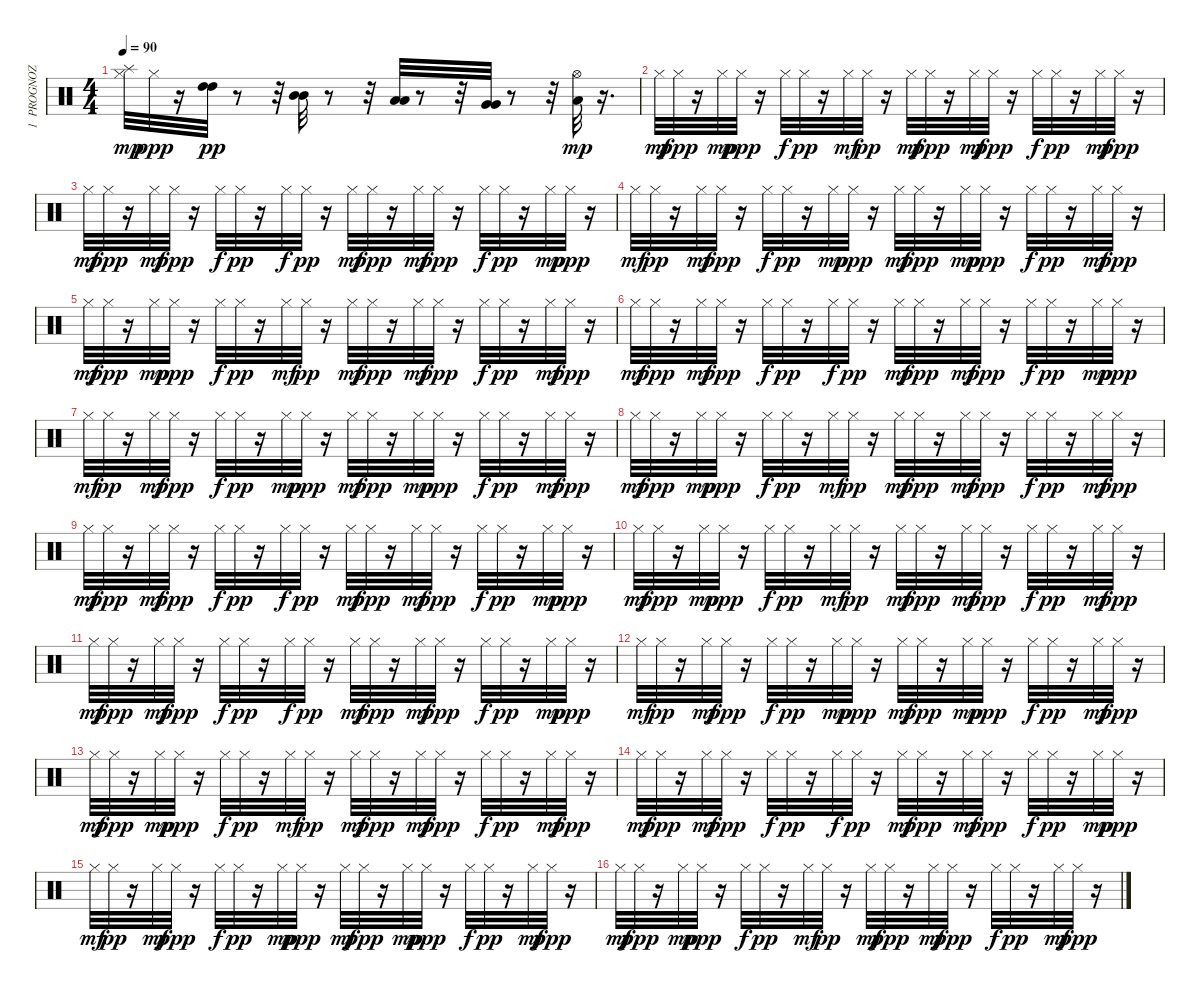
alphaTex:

\track ("1  PROGNOZ POGODY" "1  PROGNOZ") {instrument percussion}
\staff {score}
\articulation defaults
\ts (4 4)
\tempo 90
\clef neutral
\ks c
("Splash (hit)" "Hi-Hat (closed)").32{dy mp} "Hi-Hat (closed)".32{dy ppp} r.16 ("High Tom (hit)" "High Tom (hit)").32{dy pp} r.8 r.32 ("Mid Tom (hit)" "Mid Tom (hit)").32 r.8 r.32 ("Low Tom (hit)" "Low Tom (hit)").32 r.8 r.32 ("Very Low Tom (hit)" "Very Low Tom (hit)").32 r.8 r.32 ("Low Floor Tom (hit)" "Hi-Hat (open)").32{dy mp} r.16{d} |
"Hi-Hat (closed)".32{dy mf} "Hi-Hat (closed)".32{dy ppp} r.16 "Hi-Hat (closed)".32{dy mp} "Hi-Hat (closed)".32{dy ppp} r.16 "Hi-Hat (closed)".32{dy f} "Hi-Hat (closed)".32{dy pp} r.16 "Hi-Hat (closed)".32{dy mf} "Hi-Hat (closed)".32{dy pp} r.16 "Hi-Hat (closed)".32{dy mf} "Hi-Hat (closed)".32{dy ppp} r.16 "Hi-Hat (closed)".32{dy mf} "Hi-Hat (closed)".32{dy ppp} r.16 "Hi-Hat (closed)".32{dy f} "Hi-Hat (closed)".32{dy pp} r.16 "Hi-Hat (closed)".32{dy mf} "Hi-Hat (closed)".32{dy ppp} r.16 |
"Hi-Hat (closed)".32{dy mf} "Hi-Hat (closed)".32{dy ppp} r.16 "Hi-Hat (closed)".32{dy mf} "Hi-Hat (closed)".32{dy ppp} r.16 "Hi-Hat (closed)".32{dy f} "Hi-Hat (closed)".32{dy pp} r.16 "Hi-Hat (closed)".32{dy f} "Hi-Hat (closed)".32{dy pp} r.16 "Hi-Hat (closed)".32{dy mf} "Hi-Hat (closed)".32{dy ppp} r.16 "Hi-Hat (closed)".32{dy mf} "Hi-Hat (closed)".32{dy ppp} r.16 "Hi-Hat (closed)".32{dy f} "Hi-Hat (closed)".32{dy pp} r.16 "Hi-Hat (closed)".32{dy mp} "Hi-Hat (closed)".32{dy ppp} r.16 |
"Hi-Hat (closed)".32{dy mf} "Hi-Hat (closed)".32{dy pp} r.16 "Hi-Hat (closed)".32{dy mf} "Hi-Hat (closed)".32{dy ppp} r.16 "Hi-Hat (closed)".32{dy f} "Hi-Hat (closed)".32{dy pp} r.16 "Hi-Hat (closed)".32{dy mp} "Hi-Hat (closed)".32{dy ppp} r.16 "Hi-Hat (closed)".32{dy mf} "Hi-Hat (closed)".32{dy ppp} r.16 "Hi-Hat (closed)".32{dy mp} "Hi-Hat (closed)".32{dy ppp} r.16 "Hi-Hat (closed)".32{dy f} "Hi-Hat (closed)".32{dy pp} r.16 "Hi-Hat (closed)".32{dy mf} "Hi-Hat (closed)".32{dy ppp} r.16 |
"Hi-Hat (closed)".32{dy mf} "Hi-Hat (closed)".32{dy ppp} r.16 "Hi-Hat (closed)".32{dy mp} "Hi-Hat (closed)".32{dy ppp} r.16 "Hi-Hat (closed)".32{dy f} "Hi-Hat (closed)".32{dy pp} r.16 "Hi-Hat (closed)".32{dy mf} "Hi-Hat (closed)".32{dy pp} r.16 "Hi-Hat (closed)".32{dy mf} "Hi-Hat (closed)".32{dy ppp} r.16 "Hi-Hat (closed)".32{dy mf} "Hi-Hat (closed)".32{dy ppp} r.16 "Hi-Hat (closed)".32{dy f} "Hi-Hat (closed)".32{dy pp} r.16 "Hi-Hat (closed)".32{dy mf} "Hi-Hat (closed)".32{dy ppp} r.16 |
"Hi-Hat (closed)".32{dy mf} "Hi-Hat (closed)".32{dy ppp} r.16 "Hi-Hat (closed)".32{dy mf} "Hi-Hat (closed)".32{dy ppp} r.16 "Hi-Hat (closed)".32{dy f} "Hi-Hat (closed)".32{dy pp} r.16 "Hi-Hat (closed)".32{dy f} "Hi-Hat (closed)".32{dy pp} r.16 "Hi-Hat (closed)".32{dy mf} "Hi-Hat (closed)".32{dy ppp} r.16 "Hi-Hat (closed)".32{dy mf} "Hi-Hat (closed)".32{dy ppp} r.16 "Hi-Hat (closed)".32{dy f} "Hi-Hat (closed)".32{dy pp} r.16 "Hi-Hat (closed)".32{dy mp} "Hi-Hat (closed)".32{dy ppp} r.16 |
"Hi-Hat (closed)".32{dy mf} "Hi-Hat (closed)".32{dy pp} r.16 "Hi-Hat (closed)".32{dy mf} "Hi-Hat (closed)".32{dy ppp} r.16 "Hi-Hat (closed)".32{dy f} "Hi-Hat (closed)".32{dy pp} r.16 "Hi-Hat (closed)".32{dy mp} "Hi-Hat (closed)".32{dy ppp} r.16 "Hi-Hat (closed)".32{dy mf} "Hi-Hat (closed)".32{dy ppp} r.16 "Hi-Hat (closed)".32{dy mp} "Hi-Hat (closed)".32{dy ppp} r.16 "Hi-Hat (closed)".32{dy f} "Hi-Hat (closed)".32{dy pp} r.16 "Hi-Hat (closed)".32{dy mf} "Hi-Hat (closed)".32{dy ppp} r.16 |
"Hi-Hat (closed)".32{dy mf} "Hi-Hat (closed)".32{dy ppp} r.16 "Hi-Hat (closed)".32{dy mp} "Hi-Hat (closed)".32{dy ppp} r.16 "Hi-Hat (closed)".32{dy f} "Hi-Hat (closed)".32{dy pp} r.16 "Hi-Hat (closed)".32{dy mf} "Hi-Hat (closed)".32{dy pp} r.16 "Hi-Hat (closed)".32{dy mf} "Hi-Hat (closed)".32{dy ppp} r.16 "Hi-Hat (closed)".32{dy mf} "Hi-Hat (closed)".32{dy ppp} r.16 "Hi-Hat (closed)".32{dy f} "Hi-Hat (closed)".32{dy pp} r.16 "Hi-Hat (closed)".32{dy mf} "Hi-Hat (closed)".32{dy ppp} r.16 |
"Hi-Hat (closed)".32{dy mf} "Hi-Hat (closed)".32{dy ppp} r.16 "Hi-Hat (closed)".32{dy mf} "Hi-Hat (closed)".32{dy ppp} r.16 "Hi-Hat (closed)".32{dy f} "Hi-Hat (closed)".32{dy pp} r.16 "Hi-Hat (closed)".32{dy f} "Hi-Hat (closed)".32{dy pp} r.16 "Hi-Hat (closed)".32{dy mf} "Hi-Hat (closed)".32{dy ppp} r.16 "Hi-Hat (closed)".32{dy mf} "Hi-Hat (closed)".32{dy ppp} r.16 "Hi-Hat (closed)".32{dy f} "Hi-Hat (closed)".32{dy pp} r.16 "Hi-Hat (closed)".32{dy mp} "Hi-Hat (closed)".32{dy ppp} r.16 |
"Hi-Hat (closed)".32{dy mf} "Hi-Hat (closed)".32{dy ppp} r.16 "Hi-Hat (closed)".32{dy mp} "Hi-Hat (closed)".32{dy ppp} r.16 "Hi-Hat (closed)".32{dy f} "Hi-Hat (closed)".32{dy pp} r.16 "Hi-Hat (closed)".32{dy mf} "Hi-Hat (closed)".32{dy pp} r.16 "Hi-Hat (closed)".32{dy mf} "Hi-Hat (closed)".32{dy ppp} r.16 "Hi-Hat (closed)".32{dy mf} "Hi-Hat (closed)".32{dy ppp} r.16 "Hi-Hat (closed)".32{dy f} "Hi-Hat (closed)".32{dy pp} r.16 "Hi-Hat (closed)".32{dy mf} "Hi-Hat (closed)".32{dy ppp} r.16 |
"Hi-Hat (closed)".32{dy mf} "Hi-Hat (closed)".32{dy ppp} r.16 "Hi-Hat (closed)".32{dy mf} "Hi-Hat (closed)".32{dy ppp} r.16 "Hi-Hat (closed)".32{dy f} "Hi-Hat (closed)".32{dy pp} r.16 "Hi-Hat (closed)".32{dy f} "Hi-Hat (closed)".32{dy pp} r.16 "Hi-Hat (closed)".32{dy mf} "Hi-Hat (closed)".32{dy ppp} r.16 "Hi-Hat (closed)".32{dy mf} "Hi-Hat (closed)".32{dy ppp} r.16 "Hi-Hat (closed)".32{dy f} "Hi-Hat (closed)".32{dy pp} r.16 "Hi-Hat (closed)".32{dy mp} "Hi-Hat (closed)".32{dy ppp} r.16 |
"Hi-Hat (closed)".32{dy mf} "Hi-Hat (closed)".32{dy pp} r.16 "Hi-Hat (closed)".32{dy mf} "Hi-Hat (closed)".32{dy ppp} r.16 "Hi-Hat (closed)".32{dy f} "Hi-Hat (closed)".32{dy pp} r.16 "Hi-Hat (closed)".32{dy mp} "Hi-Hat (closed)".32{dy ppp} r.16 "Hi-Hat (closed)".32{dy mf} "Hi-Hat (closed)".32{dy ppp} r.16 "Hi-Hat (closed)".32{dy mp} "Hi-Hat (closed)".32{dy ppp} r.16 "Hi-Hat (closed)".32{dy f} "Hi-Hat (closed)".32{dy pp} r.16 "Hi-Hat (closed)".32{dy mf} "Hi-Hat (closed)".32{dy ppp} r.16 |
"Hi-Hat (closed)".32{dy mf} "Hi-Hat (closed)".32{dy ppp} r.16 "Hi-Hat (closed)".32{dy mp} "Hi-Hat (closed)".32{dy ppp} r.16 "Hi-Hat (closed)".32{dy f} "Hi-Hat (closed)".32{dy pp} r.16 "Hi-Hat (closed)".32{dy mf} "Hi-Hat (closed)".32{dy pp} r.16 "Hi-Hat (closed)".32{dy mf} "Hi-Hat (closed)".32{dy ppp} r.16 "Hi-Hat (closed)".32{dy mf} "Hi-Hat (closed)".32{dy ppp} r.16 "Hi-Hat (closed)".32{dy f} "Hi-Hat (closed)".32{dy pp} r.16 "Hi-Hat (closed)".32{dy mf} "Hi-Hat (closed)".32{dy ppp} r.16 |
"Hi-Hat (closed)".32{dy mf} "Hi-Hat (closed)".32{dy ppp} r.16 "Hi-Hat (closed)".32{dy mf} "Hi-Hat (closed)".32{dy ppp} r.16 "Hi-Hat (closed)".32{dy f} "Hi-Hat (closed)".32{dy pp} r.16 "Hi-Hat (closed)".32{dy f} "Hi-Hat (closed)".32{dy pp} r.16 "Hi-Hat (closed)".32{dy mf} "Hi-Hat (closed)".32{dy ppp} r.16 "Hi-Hat (closed)".32{dy mf} "Hi-Hat (closed)".32{dy ppp} r.16 "Hi-Hat (closed)".32{dy f} "Hi-Hat (closed)".32{dy pp} r.16 "Hi-Hat (closed)".32{dy mp} "Hi-Hat (closed)".32{dy ppp} r.16 |
"Hi-Hat (closed)".32{dy mf} "Hi-Hat (closed)".32{dy pp} r.16 "Hi-Hat (closed)".32{dy mf} "Hi-Hat (closed)".32{dy ppp} r.16 "Hi-Hat (closed)".32{dy f} "Hi-Hat (closed)".32{dy pp} r.16 "Hi-Hat (closed)".32{dy mp} "Hi-Hat (closed)".32{dy ppp} r.16 "Hi-Hat (closed)".32{dy mf} "Hi-Hat (closed)".32{dy ppp} r.16 "Hi-Hat (closed)".32{dy mp} "Hi-Hat (closed)".32{dy ppp} r.16 "Hi-Hat (closed)".32{dy f} "Hi-Hat (closed)".32{dy pp} r.16 "Hi-Hat (closed)".32{dy mf} "Hi-Hat (closed)".32{dy ppp} r.16 |
"Hi-Hat (closed)".32{dy mf} "Hi-Hat (closed)".32{dy ppp} r.16 "Hi-Hat (closed)".32{dy mp} "Hi-Hat (closed)".32{dy ppp} r.16 "Hi-Hat (closed)".32{dy f} "Hi-Hat (closed)".32{dy pp} r.16 "Hi-Hat (closed)".32{dy mf} "Hi-Hat (closed)".32{dy pp} r.16 "Hi-Hat (closed)".32{dy mf} "Hi-Hat (closed)".32{dy ppp} r.16 "Hi-Hat (closed)".32{dy mf} "Hi-Hat (closed)".32{dy ppp} r.16 "Hi-Hat (closed)".32{dy f} "Hi-Hat (closed)".32{dy pp} r.16 "Hi-Hat (closed)".32{dy mf} "Hi-Hat (closed)".32{dy ppp} r.16
